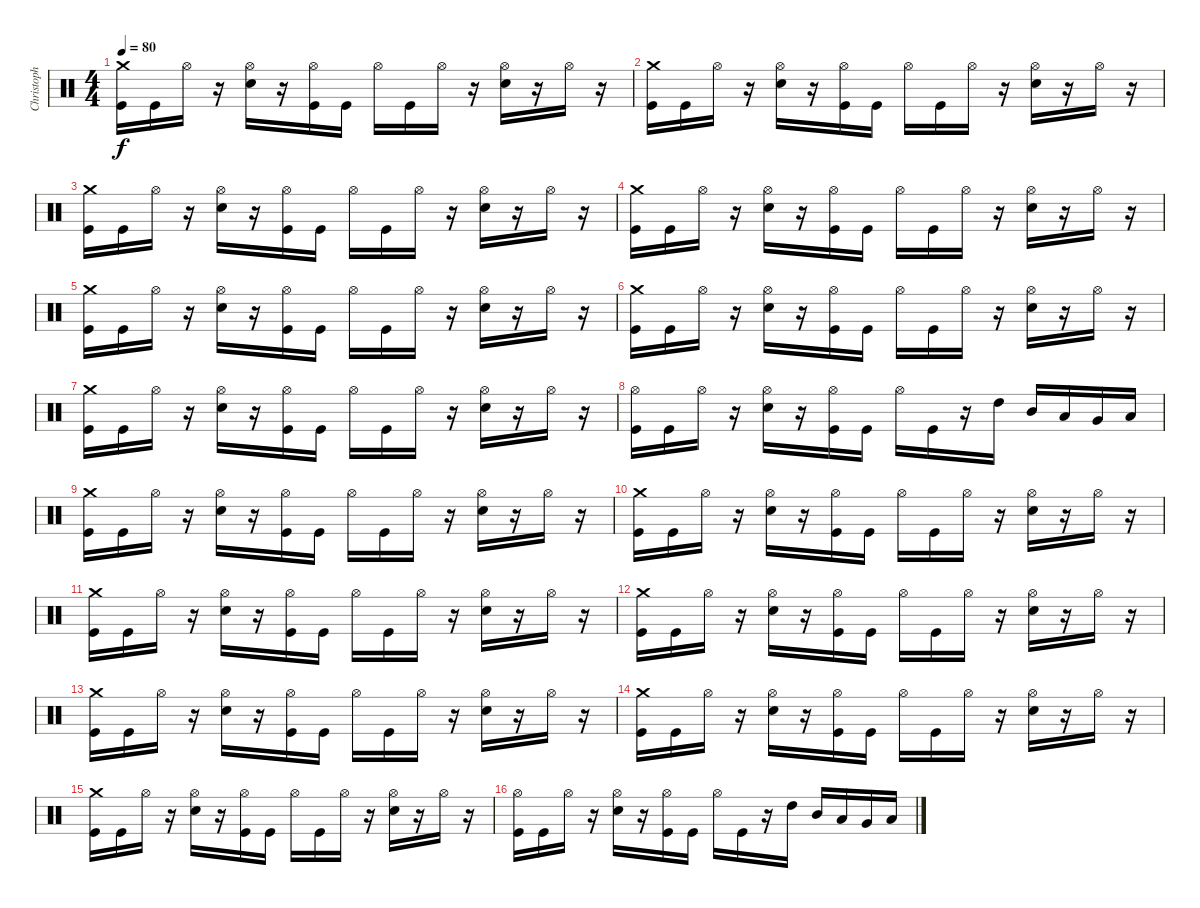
\track ("Christoph DOOM Schneider" "Christoph ") {instrument percussion}
\staff {score}
\articulation defaults
\ts (4 4)
\tempo 80
\clef neutral
\ks c
("Crash medium (hit)" "Kick (hit)").16{dy f} "Kick (hit)".16 "Hi-Hat (open)".16 r.16 ("Electric Snare (hit)" "Hi-Hat (open)").16 r.16 ("Hi-Hat (open)" "Kick (hit)").16 "Kick (hit)".16 "Hi-Hat (open)".16 "Kick (hit)".16 "Hi-Hat (open)".16 r.16 ("Electric Snare (hit)" "Hi-Hat (open)").16 r.16 "Hi-Hat (open)".16 r.16 |
("Crash medium (hit)" "Kick (hit)").16 "Kick (hit)".16 "Hi-Hat (open)".16 r.16 ("Electric Snare (hit)" "Hi-Hat (open)").16 r.16 ("Hi-Hat (open)" "Kick (hit)").16 "Kick (hit)".16 "Hi-Hat (open)".16 "Kick (hit)".16 "Hi-Hat (open)".16 r.16 ("Electric Snare (hit)" "Hi-Hat (open)").16 r.16 "Hi-Hat (open)".16 r.16 |
("Crash medium (hit)" "Kick (hit)").16 "Kick (hit)".16 "Hi-Hat (open)".16 r.16 ("Electric Snare (hit)" "Hi-Hat (open)").16 r.16 ("Hi-Hat (open)" "Kick (hit)").16 "Kick (hit)".16 "Hi-Hat (open)".16 "Kick (hit)".16 "Hi-Hat (open)".16 r.16 ("Electric Snare (hit)" "Hi-Hat (open)").16 r.16 "Hi-Hat (open)".16 r.16 |
("Crash medium (hit)" "Kick (hit)").16 "Kick (hit)".16 "Hi-Hat (open)".16 r.16 ("Electric Snare (hit)" "Hi-Hat (open)").16 r.16 ("Hi-Hat (open)" "Kick (hit)").16 "Kick (hit)".16 "Hi-Hat (open)".16 "Kick (hit)".16 "Hi-Hat (open)".16 r.16 ("Electric Snare (hit)" "Hi-Hat (open)").16 r.16 "Hi-Hat (open)".16 r.16 |
("Crash medium (hit)" "Kick (hit)").16 "Kick (hit)".16 "Hi-Hat (open)".16 r.16 ("Electric Snare (hit)" "Hi-Hat (open)").16 r.16 ("Hi-Hat (open)" "Kick (hit)").16 "Kick (hit)".16 "Hi-Hat (open)".16 "Kick (hit)".16 "Hi-Hat (open)".16 r.16 ("Electric Snare (hit)" "Hi-Hat (open)").16 r.16 "Hi-Hat (open)".16 r.16 |
("Crash medium (hit)" "Kick (hit)").16 "Kick (hit)".16 "Hi-Hat (open)".16 r.16 ("Electric Snare (hit)" "Hi-Hat (open)").16 r.16 ("Hi-Hat (open)" "Kick (hit)").16 "Kick (hit)".16 "Hi-Hat (open)".16 "Kick (hit)".16 "Hi-Hat (open)".16 r.16 ("Electric Snare (hit)" "Hi-Hat (open)").16 r.16 "Hi-Hat (open)".16 r.16 |
("Crash medium (hit)" "Kick (hit)").16 "Kick (hit)".16 "Hi-Hat (open)".16 r.16 ("Electric Snare (hit)" "Hi-Hat (open)").16 r.16 ("Hi-Hat (open)" "Kick (hit)").16 "Kick (hit)".16 "Hi-Hat (open)".16 "Kick (hit)".16 "Hi-Hat (open)".16 r.16 ("Electric Snare (hit)" "Hi-Hat (open)").16 r.16 "Hi-Hat (open)".16 r.16 |
("Hi-Hat (open)" "Kick (hit)").16 "Kick (hit)".16 "Hi-Hat (open)".16 r.16 ("Electric Snare (hit)" "Hi-Hat (open)").16 r.16 ("Hi-Hat (open)" "Kick (hit)").16 "Kick (hit)".16 "Hi-Hat (open)".16 "Kick (hit)".16 r.16 "High Tom (hit)".16 "Mid Tom (hit)".16 "Low Tom (hit)".16 "Very Low Tom (hit)".16 "Low Floor Tom (hit)".16 |
("Crash medium (hit)" "Kick (hit)").16 "Kick (hit)".16 "Hi-Hat (open)".16 r.16 ("Electric Snare (hit)" "Hi-Hat (open)").16 r.16 ("Hi-Hat (open)" "Kick (hit)").16 "Kick (hit)".16 "Hi-Hat (open)".16 "Kick (hit)".16 "Hi-Hat (open)".16 r.16 ("Electric Snare (hit)" "Hi-Hat (open)").16 r.16 "Hi-Hat (open)".16 r.16 |
("Crash medium (hit)" "Kick (hit)").16 "Kick (hit)".16 "Hi-Hat (open)".16 r.16 ("Electric Snare (hit)" "Hi-Hat (open)").16 r.16 ("Hi-Hat (open)" "Kick (hit)").16 "Kick (hit)".16 "Hi-Hat (open)".16 "Kick (hit)".16 "Hi-Hat (open)".16 r.16 ("Electric Snare (hit)" "Hi-Hat (open)").16 r.16 "Hi-Hat (open)".16 r.16 |
("Crash medium (hit)" "Kick (hit)").16 "Kick (hit)".16 "Hi-Hat (open)".16 r.16 ("Electric Snare (hit)" "Hi-Hat (open)").16 r.16 ("Hi-Hat (open)" "Kick (hit)").16 "Kick (hit)".16 "Hi-Hat (open)".16 "Kick (hit)".16 "Hi-Hat (open)".16 r.16 ("Electric Snare (hit)" "Hi-Hat (open)").16 r.16 "Hi-Hat (open)".16 r.16 |
("Crash medium (hit)" "Kick (hit)").16 "Kick (hit)".16 "Hi-Hat (open)".16 r.16 ("Electric Snare (hit)" "Hi-Hat (open)").16 r.16 ("Hi-Hat (open)" "Kick (hit)").16 "Kick (hit)".16 "Hi-Hat (open)".16 "Kick (hit)".16 "Hi-Hat (open)".16 r.16 ("Electric Snare (hit)" "Hi-Hat (open)").16 r.16 "Hi-Hat (open)".16 r.16 |
("Crash medium (hit)" "Kick (hit)").16 "Kick (hit)".16 "Hi-Hat (open)".16 r.16 ("Electric Snare (hit)" "Hi-Hat (open)").16 r.16 ("Hi-Hat (open)" "Kick (hit)").16 "Kick (hit)".16 "Hi-Hat (open)".16 "Kick (hit)".16 "Hi-Hat (open)".16 r.16 ("Electric Snare (hit)" "Hi-Hat (open)").16 r.16 "Hi-Hat (open)".16 r.16 |
("Crash medium (hit)" "Kick (hit)").16 "Kick (hit)".16 "Hi-Hat (open)".16 r.16 ("Electric Snare (hit)" "Hi-Hat (open)").16 r.16 ("Hi-Hat (open)" "Kick (hit)").16 "Kick (hit)".16 "Hi-Hat (open)".16 "Kick (hit)".16 "Hi-Hat (open)".16 r.16 ("Electric Snare (hit)" "Hi-Hat (open)").16 r.16 "Hi-Hat (open)".16 r.16 |
("Crash medium (hit)" "Kick (hit)").16 "Kick (hit)".16 "Hi-Hat (open)".16 r.16 ("Electric Snare (hit)" "Hi-Hat (open)").16 r.16 ("Hi-Hat (open)" "Kick (hit)").16 "Kick (hit)".16 "Hi-Hat (open)".16 "Kick (hit)".16 "Hi-Hat (open)".16 r.16 ("Electric Snare (hit)" "Hi-Hat (open)").16 r.16 "Hi-Hat (open)".16 r.16 |
("Hi-Hat (open)" "Kick (hit)").16 "Kick (hit)".16 "Hi-Hat (open)".16 r.16 ("Electric Snare (hit)" "Hi-Hat (open)").16 r.16 ("Hi-Hat (open)" "Kick (hit)").16 "Kick (hit)".16 "Hi-Hat (open)".16 "Kick (hit)".16 r.16 "High Tom (hit)".16 "Mid Tom (hit)".16 "Low Tom (hit)".16 "Very Low Tom (hit)".16 "Low Floor Tom (hit)".16
